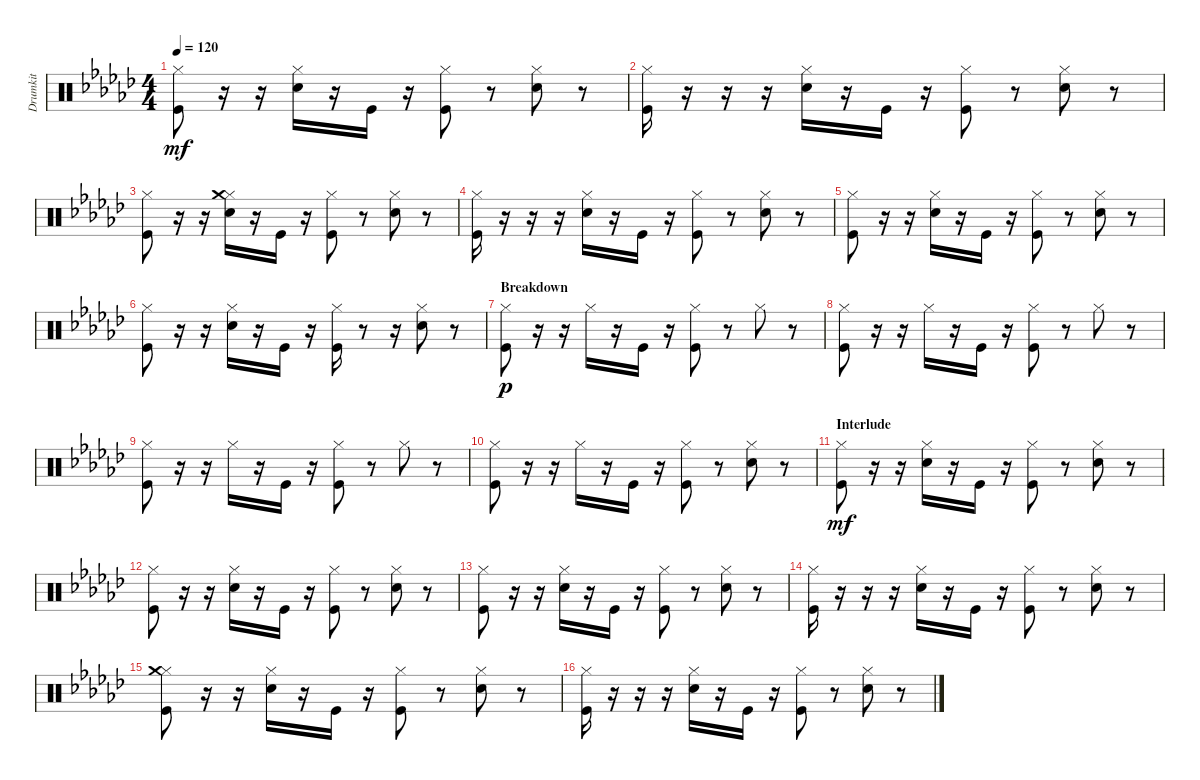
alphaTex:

\track ("Drumkit" "Drumkit") {instrument percussion}
\staff {score}
\articulation defaults
\ts (4 4)
\tempo 120
\clef neutral
\ks ebminor
("Kick (hit)" "Hi-Hat (closed)").8{dy mf} r.16 r.16 ("Snare (hit) 2" "Hi-Hat (closed)").16 r.16 "Kick (hit)".16 r.16 ("Kick (hit)" "Hi-Hat (closed)").8 r.8 ("Snare (hit) 2" "Hi-Hat (closed)").8 r.8 |
("Kick (hit)" "Hi-Hat (closed)").16 r.16 r.16 r.16 ("Snare (hit) 2" "Hi-Hat (closed)").16 r.16 "Kick (hit)".16 r.16 ("Kick (hit)" "Hi-Hat (closed)").8 r.8 ("Snare (hit) 2" "Hi-Hat (closed)").8 r.8 |
("Kick (hit)" "Hi-Hat (closed)").8 r.16 r.16 ("Snare (hit) 2" "Hi-Hat (closed)" "Crash medium (hit)").16 r.16 "Kick (hit)".16 r.16 ("Kick (hit)" "Hi-Hat (closed)").8 r.8 ("Snare (hit) 2" "Hi-Hat (closed)").8 r.8 |
("Kick (hit)" "Hi-Hat (closed)").16 r.16 r.16 r.16 ("Snare (hit) 2" "Hi-Hat (closed)").16 r.16 "Kick (hit)".16 r.16 ("Kick (hit)" "Hi-Hat (closed)").8 r.8 ("Snare (hit) 2" "Hi-Hat (closed)").8 r.8 |
("Kick (hit)" "Hi-Hat (closed)").8 r.16 r.16 ("Snare (hit) 2" "Hi-Hat (closed)").16 r.16 "Kick (hit)".16 r.16 ("Kick (hit)" "Hi-Hat (closed)").8 r.8 ("Snare (hit) 2" "Hi-Hat (closed)").8 r.8 |
("Kick (hit)" "Hi-Hat (closed)").8 r.16 r.16 ("Snare (hit) 2" "Hi-Hat (closed)").16 r.16 "Kick (hit)".16 r.16 ("Kick (hit)" "Hi-Hat (closed)").16 r.8 r.16 ("Snare (hit) 2" "Hi-Hat (closed)").8 r.8 |
\section ("" "Breakdown")
("Kick (hit)" "Hi-Hat (closed)").8{dy p} r.16 r.16 "Hi-Hat (closed)".16 r.16 "Kick (hit)".16 r.16 ("Kick (hit)" "Hi-Hat (closed)").8 r.8 "Hi-Hat (closed)".8 r.8 |
("Kick (hit)" "Hi-Hat (closed)").8 r.16 r.16 "Hi-Hat (closed)".16 r.16 "Kick (hit)".16 r.16 ("Kick (hit)" "Hi-Hat (closed)").8 r.8 "Hi-Hat (closed)".8 r.8 |
("Kick (hit)" "Hi-Hat (closed)").8 r.16 r.16 "Hi-Hat (closed)".16 r.16 "Kick (hit)".16 r.16 ("Kick (hit)" "Hi-Hat (closed)").8 r.8 "Hi-Hat (closed)".8 r.8 |
("Kick (hit)" "Hi-Hat (closed)").8 r.16 r.16 "Hi-Hat (closed)".16 r.16 "Kick (hit)".16 r.16 ("Kick (hit)" "Hi-Hat (closed)").8 r.8 ("Snare (hit) 2" "Hi-Hat (closed)").8 r.8 |
\section ("" "Interlude")
("Kick (hit)" "Hi-Hat (closed)").8{dy mf} r.16 r.16 ("Snare (hit) 2" "Hi-Hat (closed)").16 r.16 "Kick (hit)".16 r.16 ("Kick (hit)" "Hi-Hat (closed)").8 r.8 ("Snare (hit) 2" "Hi-Hat (closed)").8 r.8 |
("Kick (hit)" "Hi-Hat (closed)").8 r.16 r.16 ("Snare (hit) 2" "Hi-Hat (closed)").16 r.16 "Kick (hit)".16 r.16 ("Kick (hit)" "Hi-Hat (closed)").8 r.8 ("Snare (hit) 2" "Hi-Hat (closed)").8 r.8 |
("Kick (hit)" "Hi-Hat (closed)").8 r.16 r.16 ("Snare (hit) 2" "Hi-Hat (closed)").16 r.16 "Kick (hit)".16 r.16 ("Kick (hit)" "Hi-Hat (closed)").8 r.8 ("Snare (hit) 2" "Hi-Hat (closed)").8 r.8 |
("Kick (hit)" "Hi-Hat (closed)").16 r.16 r.16 r.16 ("Snare (hit) 2" "Hi-Hat (closed)").16 r.16 "Kick (hit)".16 r.16 ("Kick (hit)" "Hi-Hat (closed)").8 r.8 ("Snare (hit) 2" "Hi-Hat (closed)").8 r.8 |
("Kick (hit)" "Hi-Hat (closed)" "Crash medium (hit)").8 r.16 r.16 ("Snare (hit) 2" "Hi-Hat (closed)").16 r.16 "Kick (hit)".16 r.16 ("Kick (hit)" "Hi-Hat (closed)").8 r.8 ("Snare (hit) 2" "Hi-Hat (closed)").8 r.8 |
("Kick (hit)" "Hi-Hat (closed)").16 r.16 r.16 r.16 ("Snare (hit) 2" "Hi-Hat (closed)").16 r.16 "Kick (hit)".16 r.16 ("Kick (hit)" "Hi-Hat (closed)").8 r.8 ("Snare (hit) 2" "Hi-Hat (closed)").8 r.8
